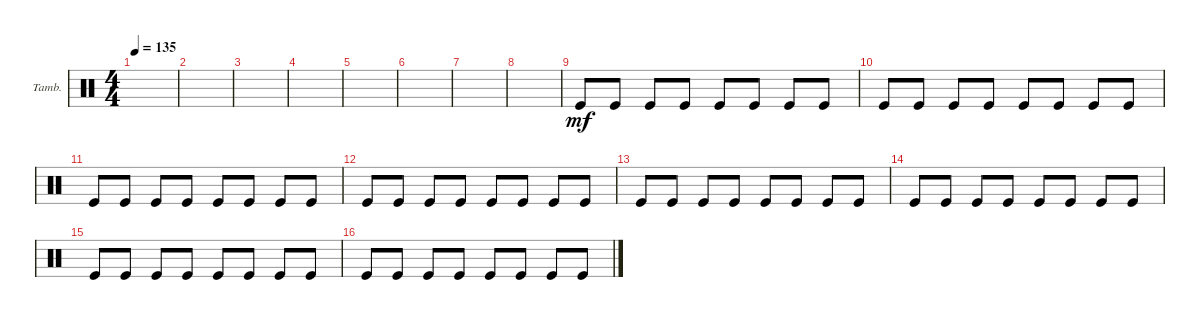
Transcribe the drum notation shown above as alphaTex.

\defaultSystemsLayout 4
\bracketExtendMode groupsimilarinstruments
\firstSystemTrackNameOrientation horizontal
\otherSystemsTrackNameOrientation horizontal
\track ("Tambourine" "Tamb.") {instrument percussion}
\staff {score}
\articulation defaults
\ts (4 4)
\tempo 135
\clef neutral
\ks c
|
|
|
|
|
|
|
|
"Kick (hit)".8{dy mf} "Kick (hit)".8 "Kick (hit)".8 "Kick (hit)".8 "Kick (hit)".8 "Kick (hit)".8 "Kick (hit)".8 "Kick (hit)".8 |
"Kick (hit)".8 "Kick (hit)".8 "Kick (hit)".8 "Kick (hit)".8 "Kick (hit)".8 "Kick (hit)".8 "Kick (hit)".8 "Kick (hit)".8 |
"Kick (hit)".8 "Kick (hit)".8 "Kick (hit)".8 "Kick (hit)".8 "Kick (hit)".8 "Kick (hit)".8 "Kick (hit)".8 "Kick (hit)".8 |
"Kick (hit)".8 "Kick (hit)".8 "Kick (hit)".8 "Kick (hit)".8 "Kick (hit)".8 "Kick (hit)".8 "Kick (hit)".8 "Kick (hit)".8 |
"Kick (hit)".8 "Kick (hit)".8 "Kick (hit)".8 "Kick (hit)".8 "Kick (hit)".8 "Kick (hit)".8 "Kick (hit)".8 "Kick (hit)".8 |
"Kick (hit)".8 "Kick (hit)".8 "Kick (hit)".8 "Kick (hit)".8 "Kick (hit)".8 "Kick (hit)".8 "Kick (hit)".8 "Kick (hit)".8 |
"Kick (hit)".8 "Kick (hit)".8 "Kick (hit)".8 "Kick (hit)".8 "Kick (hit)".8 "Kick (hit)".8 "Kick (hit)".8 "Kick (hit)".8 |
"Kick (hit)".8 "Kick (hit)".8 "Kick (hit)".8 "Kick (hit)".8 "Kick (hit)".8 "Kick (hit)".8 "Kick (hit)".8 "Kick (hit)".8
